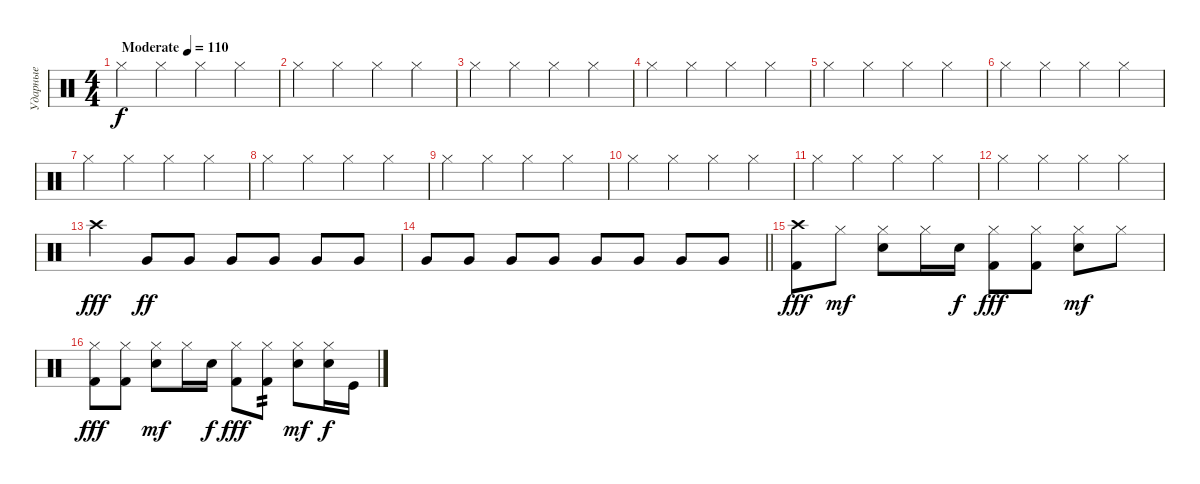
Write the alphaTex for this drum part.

\track ("Ударные" "Ударные") {instrument percussion}
\staff {score}
\articulation defaults
\ts (4 4)
\tempo (110 "Moderate")
\clef neutral
\ks c "Hi-Hat (closed)".4{dy f} "Hi-Hat (closed)".4 "Hi-Hat (closed)".4 "Hi-Hat (closed)".4
|
"Hi-Hat (closed)".4 "Hi-Hat (closed)".4 "Hi-Hat (closed)".4 "Hi-Hat (closed)".4 |
"Hi-Hat (closed)".4 "Hi-Hat (closed)".4 "Hi-Hat (closed)".4 "Hi-Hat (closed)".4 |
"Hi-Hat (closed)".4 "Hi-Hat (closed)".4 "Hi-Hat (closed)".4 "Hi-Hat (closed)".4 |
"Hi-Hat (closed)".4 "Hi-Hat (closed)".4 "Hi-Hat (closed)".4 "Hi-Hat (closed)".4 |
"Hi-Hat (closed)".4 "Hi-Hat (closed)".4 "Hi-Hat (closed)".4 "Hi-Hat (closed)".4 |
"Hi-Hat (closed)".4 "Hi-Hat (closed)".4 "Hi-Hat (closed)".4 "Hi-Hat (closed)".4 |
"Hi-Hat (closed)".4 "Hi-Hat (closed)".4 "Hi-Hat (closed)".4 "Hi-Hat (closed)".4 |
"Hi-Hat (closed)".4 "Hi-Hat (closed)".4 "Hi-Hat (closed)".4 "Hi-Hat (closed)".4 |
"Hi-Hat (closed)".4 "Hi-Hat (closed)".4 "Hi-Hat (closed)".4 "Hi-Hat (closed)".4 |
"Hi-Hat (closed)".4 "Hi-Hat (closed)".4 "Hi-Hat (closed)".4 "Hi-Hat (closed)".4 |
"Hi-Hat (closed)".4 "Hi-Hat (closed)".4 "Hi-Hat (closed)".4 "Hi-Hat (closed)".4 |
"Crash high (hit)".4{dy fff} "Very Low Tom (hit)".8{dy ff volume 2} "Very Low Tom (hit)".8{volume 13} "Very Low Tom (hit)".8 "Very Low Tom (hit)".8 "Very Low Tom (hit)".8 "Very Low Tom (hit)".8 |
\barLineRight lightlight "Very Low Tom (hit)".8 "Very Low Tom (hit)".8 "Very Low Tom (hit)".8 "Very Low Tom (hit)".8 "Very Low Tom (hit)".8 "Very Low Tom (hit)".8 "Very Low Tom (hit)".8 "Very Low Tom (hit)".8
|
("Crash high (hit)" "Kick (hit) 2").8{dy fff} "Hi-Hat (closed)".8{dy mf} ("Hi-Hat (closed)" "Snare (hit) 2").8 "Hi-Hat (closed)".16 "Snare (hit) 2".16{dy f} ("Hi-Hat (closed)" "Kick (hit) 2").8{dy fff} ("Hi-Hat (closed)" "Kick (hit) 2").8 ("Hi-Hat (closed)" "Snare (hit) 2").8{dy mf} "Hi-Hat (closed)".8 |
("Hi-Hat (closed)" "Kick (hit) 2").8{dy fff} ("Hi-Hat (closed)" "Kick (hit) 2").8 ("Hi-Hat (closed)" "Snare (hit) 2").8{dy mf} "Hi-Hat (closed)".16 "Snare (hit) 2".16{dy f} ("Hi-Hat (closed)" "Kick (hit) 2").8{dy fff} ("Hi-Hat (closed)" "Kick (hit) 2").8{tp 2} ("Hi-Hat (closed)" "Snare (hit) 2").8{dy mf} ("Snare (hit) 2" "Hi-Hat (closed)").16{dy f} "Kick (hit)".16
